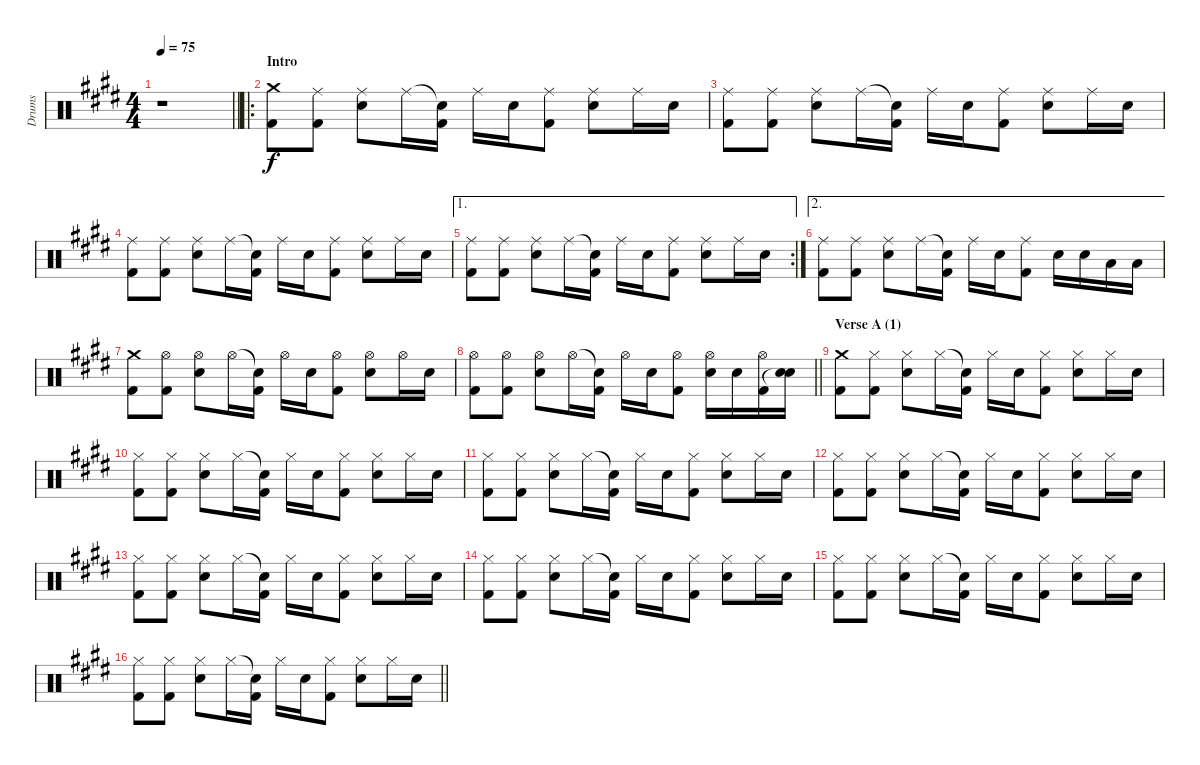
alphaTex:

\track ("Drums" "Drums") {instrument percussion}
\staff {score}
\articulation defaults
\ts (4 4)
\tempo 75
\clef neutral
\barLineRight lightlight
\ks c#minor
r.1{dy f} |
\ro
\section ("" "Intro")
("Crash medium (hit)" "Kick (hit) 2").8 ("Ride (middle)" "Kick (hit) 2").8 ("Ride (middle)" "Electric Snare (hit)").8 "Ride (middle)".16 ("Snare (hit)"{t} "Kick (hit) 2").16 "Ride (middle)".16 "Electric Snare (hit)".16 ("Ride (middle)" "Kick (hit) 2").8 ("Ride (middle)" "Electric Snare (hit)").8 "Ride (middle)".16 "Electric Snare (hit)".16 |
("Ride (middle)" "Kick (hit) 2").8 ("Ride (middle)" "Kick (hit) 2").8 ("Ride (middle)" "Electric Snare (hit)").8 "Ride (middle)".16 ("Snare (hit)"{t} "Kick (hit) 2").16 "Ride (middle)".16 "Electric Snare (hit)".16 ("Ride (middle)" "Kick (hit) 2").8 ("Ride (middle)" "Electric Snare (hit)").8 "Ride (middle)".16 "Electric Snare (hit)".16 |
("Ride (middle)" "Kick (hit) 2").8 ("Ride (middle)" "Kick (hit) 2").8 ("Ride (middle)" "Electric Snare (hit)").8 "Ride (middle)".16 ("Snare (hit)"{t} "Kick (hit) 2").16 "Ride (middle)".16 "Electric Snare (hit)".16 ("Ride (middle)" "Kick (hit) 2").8 ("Ride (middle)" "Electric Snare (hit)").8 "Ride (middle)".16 "Electric Snare (hit)".16 |
\ae 1
\rc 2
("Ride (middle)" "Kick (hit) 2").8 ("Ride (middle)" "Kick (hit) 2").8 ("Ride (middle)" "Electric Snare (hit)").8 "Ride (middle)".16 ("Snare (hit)"{t} "Kick (hit) 2").16 "Ride (middle)".16 "Electric Snare (hit)".16 ("Ride (middle)" "Kick (hit) 2").8 ("Ride (middle)" "Electric Snare (hit)").8 "Ride (middle)".16 "Electric Snare (hit)".16 |
\ae 2
("Ride (middle)" "Kick (hit) 2").8 ("Ride (middle)" "Kick (hit) 2").8 ("Ride (middle)" "Electric Snare (hit)").8 "Ride (middle)".16 ("Snare (hit)"{t} "Kick (hit) 2").16 "Ride (middle)".16 "Electric Snare (hit)".16 ("Ride (middle)" "Kick (hit) 2").8 "Electric Snare (hit)".16 "Electric Snare (hit)".16 "Low Tom (hit)".16 "Low Tom (hit)".16 |
("Crash medium (hit)" "Kick (hit) 2").8 ("Hi-Hat (open)" "Kick (hit) 2").8 ("Hi-Hat (open)" "Electric Snare (hit)").8 "Hi-Hat (open)".16 ("Snare (hit)"{t} "Kick (hit) 2").16 "Hi-Hat (open)".16 "Electric Snare (hit)".16 ("Hi-Hat (open)" "Kick (hit) 2").8 ("Hi-Hat (open)" "Electric Snare (hit)").8 "Hi-Hat (open)".16 "Electric Snare (hit)".16 |
\barLineRight lightlight
("Hi-Hat (open)" "Kick (hit) 2").8 ("Hi-Hat (open)" "Kick (hit) 2").8 ("Hi-Hat (open)" "Electric Snare (hit)").8 "Hi-Hat (open)".16 ("Snare (hit)"{t} "Kick (hit) 2").16 "Hi-Hat (open)".16 "Electric Snare (hit)".16 ("Hi-Hat (open)" "Kick (hit) 2").8 ("Hi-Hat (open)" "Electric Snare (hit)").16 "Electric Snare (hit)".16 ("Hi-Hat (open)" "Kick (hit) 2").16 ("Electric Snare (hit)" "Snare (hit)"{t}).16 |
\section ("" "Verse A (1)")
("Crash medium (hit)" "Kick (hit) 2").8 ("Hi-Hat (closed)" "Kick (hit) 2").8 ("Hi-Hat (closed)" "Electric Snare (hit)").8 "Hi-Hat (closed)".16 ("Snare (hit)"{t} "Kick (hit) 2").16 "Hi-Hat (closed)".16 "Electric Snare (hit)".16 ("Hi-Hat (closed)" "Kick (hit) 2").8 ("Hi-Hat (closed)" "Electric Snare (hit)").8 "Hi-Hat (closed)".16 "Electric Snare (hit)".16 |
("Hi-Hat (closed)" "Kick (hit) 2").8 ("Hi-Hat (closed)" "Kick (hit) 2").8 ("Hi-Hat (closed)" "Electric Snare (hit)").8 "Hi-Hat (closed)".16 ("Snare (hit)"{t} "Kick (hit) 2").16 "Hi-Hat (closed)".16 "Electric Snare (hit)".16 ("Hi-Hat (closed)" "Kick (hit) 2").8 ("Hi-Hat (closed)" "Electric Snare (hit)").8 "Hi-Hat (closed)".16 "Electric Snare (hit)".16 |
("Hi-Hat (closed)" "Kick (hit) 2").8 ("Hi-Hat (closed)" "Kick (hit) 2").8 ("Hi-Hat (closed)" "Electric Snare (hit)").8 "Hi-Hat (closed)".16 ("Snare (hit)"{t} "Kick (hit) 2").16 "Hi-Hat (closed)".16 "Electric Snare (hit)".16 ("Hi-Hat (closed)" "Kick (hit) 2").8 ("Hi-Hat (closed)" "Electric Snare (hit)").8 "Hi-Hat (closed)".16 "Electric Snare (hit)".16 |
("Hi-Hat (closed)" "Kick (hit) 2").8 ("Hi-Hat (closed)" "Kick (hit) 2").8 ("Hi-Hat (closed)" "Electric Snare (hit)").8 "Hi-Hat (closed)".16 ("Snare (hit)"{t} "Kick (hit) 2").16 "Hi-Hat (closed)".16 "Electric Snare (hit)".16 ("Hi-Hat (closed)" "Kick (hit) 2").8 ("Hi-Hat (closed)" "Electric Snare (hit)").8 "Hi-Hat (closed)".16 "Electric Snare (hit)".16 |
("Hi-Hat (closed)" "Kick (hit) 2").8 ("Hi-Hat (closed)" "Kick (hit) 2").8 ("Hi-Hat (closed)" "Electric Snare (hit)").8 "Hi-Hat (closed)".16 ("Snare (hit)"{t} "Kick (hit) 2").16 "Hi-Hat (closed)".16 "Electric Snare (hit)".16 ("Hi-Hat (closed)" "Kick (hit) 2").8 ("Hi-Hat (closed)" "Electric Snare (hit)").8 "Hi-Hat (closed)".16 "Electric Snare (hit)".16 |
("Hi-Hat (closed)" "Kick (hit) 2").8 ("Hi-Hat (closed)" "Kick (hit) 2").8 ("Hi-Hat (closed)" "Electric Snare (hit)").8 "Hi-Hat (closed)".16 ("Snare (hit)"{t} "Kick (hit) 2").16 "Hi-Hat (closed)".16 "Electric Snare (hit)".16 ("Hi-Hat (closed)" "Kick (hit) 2").8 ("Hi-Hat (closed)" "Electric Snare (hit)").8 "Hi-Hat (closed)".16 "Electric Snare (hit)".16 |
("Hi-Hat (closed)" "Kick (hit) 2").8 ("Hi-Hat (closed)" "Kick (hit) 2").8 ("Hi-Hat (closed)" "Electric Snare (hit)").8 "Hi-Hat (closed)".16 ("Snare (hit)"{t} "Kick (hit) 2").16 "Hi-Hat (closed)".16 "Electric Snare (hit)".16 ("Hi-Hat (closed)" "Kick (hit) 2").8 ("Hi-Hat (closed)" "Electric Snare (hit)").8 "Hi-Hat (closed)".16 "Electric Snare (hit)".16 |
\barLineRight lightlight
("Hi-Hat (closed)" "Kick (hit) 2").8 ("Hi-Hat (closed)" "Kick (hit) 2").8 ("Hi-Hat (closed)" "Electric Snare (hit)").8 "Hi-Hat (closed)".16 ("Snare (hit)"{t} "Kick (hit) 2").16 "Hi-Hat (closed)".16 "Electric Snare (hit)".16 ("Hi-Hat (closed)" "Kick (hit) 2").8 ("Hi-Hat (closed)" "Electric Snare (hit)").8 "Hi-Hat (closed)".16 "Electric Snare (hit)".16
